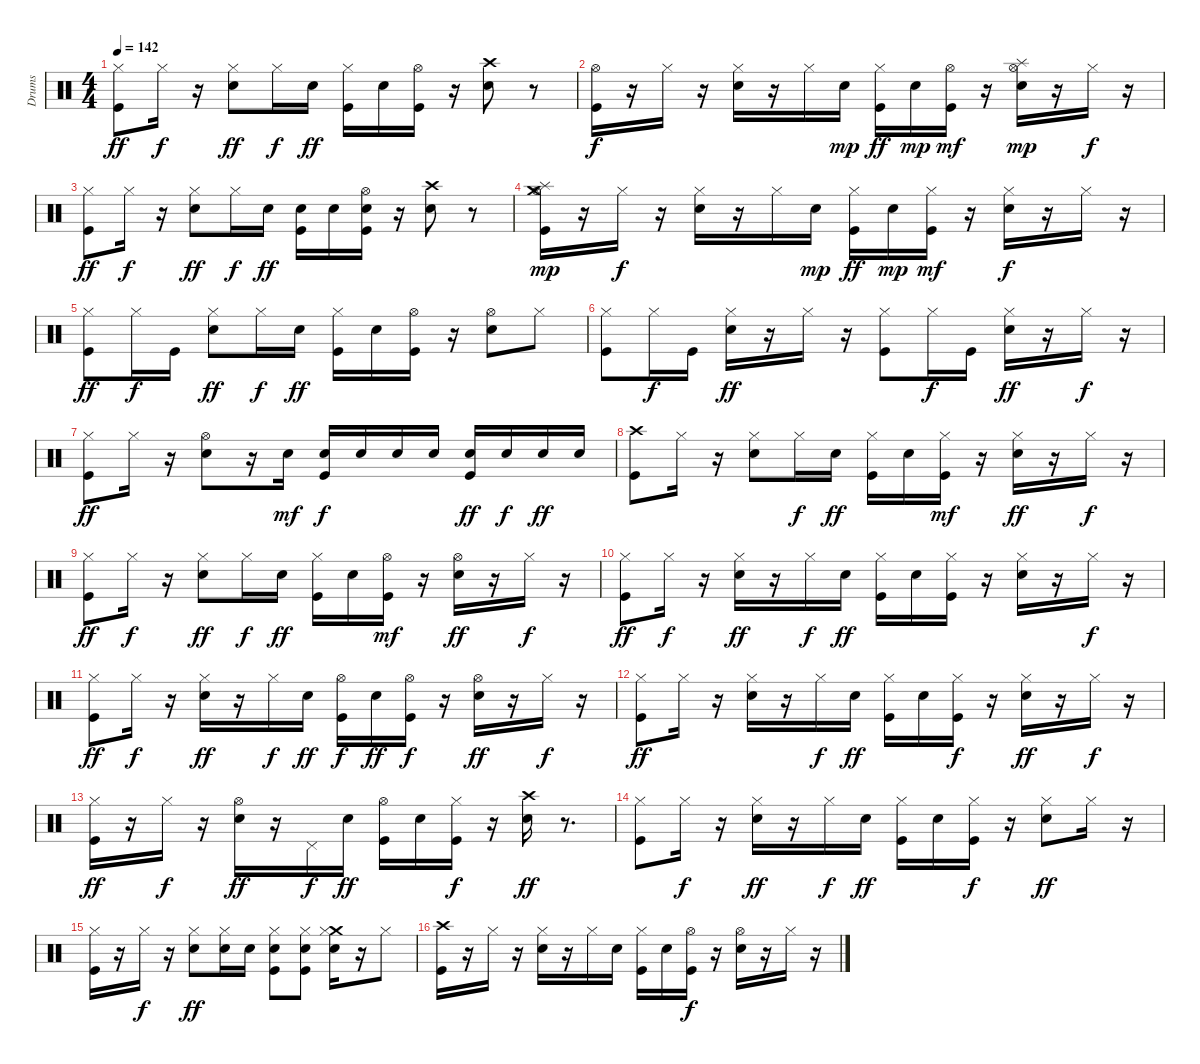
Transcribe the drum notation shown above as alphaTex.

\track ("Drums" "Drums") {instrument percussion}
\staff {score}
\articulation defaults
\ts (4 4)
\tempo 142
\clef neutral
\ks c
("Hi-Hat (closed)" "Kick (hit)").8{dy ff} "Hi-Hat (closed)".16{dy f} r.16 ("Hi-Hat (closed)" "Electric Snare (hit)").8{dy ff} "Hi-Hat (closed)".16{dy f} "Electric Snare (hit)".16{dy ff} ("Kick (hit)" "Hi-Hat (closed)").16 "Electric Snare (hit)".16 ("Kick (hit)" "Hi-Hat (open)").16 r.16 ("Crash high (hit)" "Electric Snare (hit)").8 r.8 |
("Hi-Hat (open)" "Kick (hit)").16{dy f} r.16 "Hi-Hat (closed)".16 r.16 ("Electric Snare (hit)" "Hi-Hat (closed)").16 r.16 "Hi-Hat (closed)".16 "Electric Snare (hit)".16{dy mp} ("Kick (hit)" "Hi-Hat (closed)").16{dy ff} "Electric Snare (hit)".16{dy mp} ("Kick (hit)" "Hi-Hat (open)").16{dy mf} r.16 ("Splash (hit)" "Hi-Hat (open)" "Electric Snare (hit)").16{dy mp} r.16 "Hi-Hat (closed)".16{dy f} r.16 |
("Hi-Hat (closed)" "Kick (hit)").8{dy ff} "Hi-Hat (closed)".16{dy f} r.16 ("Hi-Hat (closed)" "Electric Snare (hit)").8{dy ff} "Hi-Hat (closed)".16{dy f} "Electric Snare (hit)".16{dy ff} ("Kick (hit)" "Electric Snare (hit)").16 "Electric Snare (hit)".16 ("Hi-Hat (open)" "Electric Snare (hit)" "Kick (hit)").16 r.16 ("Crash high (hit)" "Electric Snare (hit)").8 r.8 |
("Crash medium (hit)" "Splash (hit)" "Hi-Hat (open)" "Kick (hit)").16{dy mp} r.16 "Hi-Hat (closed)".16{dy f} r.16 ("Electric Snare (hit)" "Hi-Hat (closed)").16 r.16 "Hi-Hat (closed)".16 "Electric Snare (hit)".16{dy mp} ("Kick (hit)" "Hi-Hat (closed)").16{dy ff} "Electric Snare (hit)".16{dy mp} ("Kick (hit)" "Hi-Hat (closed)").16{dy mf} r.16 ("Hi-Hat (closed)" "Electric Snare (hit)").16{dy f} r.16 "Hi-Hat (closed)".16 r.16 |
("Hi-Hat (closed)" "Kick (hit)").8{dy ff} "Hi-Hat (closed)".16{dy f} "Kick (hit)".16 ("Hi-Hat (closed)" "Electric Snare (hit)").8{dy ff} "Hi-Hat (closed)".16{dy f} "Electric Snare (hit)".16{dy ff} ("Kick (hit)" "Hi-Hat (closed)").16 "Electric Snare (hit)".16 ("Kick (hit)" "Hi-Hat (open)").16 r.16 ("Hi-Hat (open)" "Electric Snare (hit)").8 "Hi-Hat (closed)".8 |
("Kick (hit)" "Hi-Hat (closed)").8 "Hi-Hat (closed)".16{dy f} "Kick (hit)".16 ("Electric Snare (hit)" "Hi-Hat (closed)").16{dy ff} r.16 "Hi-Hat (closed)".16 r.16 ("Hi-Hat (closed)" "Kick (hit)").8 "Hi-Hat (closed)".16{dy f} "Kick (hit)".16 ("Hi-Hat (closed)" "Electric Snare (hit)").16{dy ff} r.16 "Hi-Hat (closed)".16{dy f} r.16 |
("Hi-Hat (closed)" "Kick (hit)").8{dy ff} "Hi-Hat (closed)".16 r.16 ("Electric Snare (hit)" "Hi-Hat (open)").8 r.16 "Electric Snare (hit)".16{dy mf} ("Kick (hit)" "Electric Snare (hit)").16{dy f} "Electric Snare (hit)".16 "Electric Snare (hit)".16 "Electric Snare (hit)".16 ("Kick (hit)" "Electric Snare (hit)").16{dy ff} "Electric Snare (hit)".16{dy f} "Electric Snare (hit)".16{dy ff} "Electric Snare (hit)".16 |
("Kick (hit)" "Crash high (hit)").8 "Hi-Hat (closed)".16 r.16 ("Hi-Hat (closed)" "Electric Snare (hit)").8 "Hi-Hat (closed)".16{dy f} "Electric Snare (hit)".16{dy ff} ("Hi-Hat (closed)" "Kick (hit)").16 "Electric Snare (hit)".16 ("Hi-Hat (closed)" "Kick (hit)").16{dy mf} r.16 ("Electric Snare (hit)" "Hi-Hat (closed)").16{dy ff} r.16 "Hi-Hat (closed)".16{dy f} r.16 |
("Hi-Hat (closed)" "Kick (hit)").8{dy ff} "Hi-Hat (closed)".16{dy f} r.16 ("Hi-Hat (closed)" "Electric Snare (hit)").8{dy ff} "Hi-Hat (closed)".16{dy f} "Electric Snare (hit)".16{dy ff} ("Kick (hit)" "Hi-Hat (closed)").16 "Electric Snare (hit)".16 ("Hi-Hat (open)" "Kick (hit)").16{dy mf} r.16 ("Hi-Hat (open)" "Electric Snare (hit)").16{dy ff} r.16 "Hi-Hat (closed)".16{dy f} r.16 |
("Hi-Hat (closed)" "Kick (hit)").8{dy ff} "Hi-Hat (closed)".16{dy f} r.16 ("Hi-Hat (closed)" "Electric Snare (hit)").16{dy ff} r.16 "Hi-Hat (closed)".16{dy f} "Electric Snare (hit)".16{dy ff} ("Hi-Hat (closed)" "Kick (hit)").16 "Electric Snare (hit)".16 ("Hi-Hat (closed)" "Kick (hit)").16 r.16 ("Hi-Hat (closed)" "Electric Snare (hit)").16 r.16 "Hi-Hat (closed)".16{dy f} r.16 |
("Kick (hit)" "Hi-Hat (closed)").8{dy ff} "Hi-Hat (closed)".16{dy f} r.16 ("Hi-Hat (closed)" "Electric Snare (hit)").16{dy ff} r.16 "Hi-Hat (closed)".16{dy f} "Electric Snare (hit)".16{dy ff} ("Hi-Hat (open)" "Kick (hit)").16{dy f} "Electric Snare (hit)".16{dy ff} ("Hi-Hat (open)" "Kick (hit)").16{dy f} r.16 ("Hi-Hat (open)" "Electric Snare (hit)").16{dy ff} r.16 "Hi-Hat (closed)".16{dy f} r.16 |
("Hi-Hat (closed)" "Kick (hit)").8{dy ff} "Hi-Hat (closed)".16 r.16 ("Hi-Hat (closed)" "Electric Snare (hit)").16 r.16 "Hi-Hat (closed)".16{dy f} "Electric Snare (hit)".16{dy ff} ("Hi-Hat (closed)" "Kick (hit)").16 "Electric Snare (hit)".16 ("Kick (hit)" "Hi-Hat (closed)").16{dy f} r.16 ("Hi-Hat (closed)" "Electric Snare (hit)").16{dy ff} r.16 "Hi-Hat (closed)".16{dy f} r.16 |
("Kick (hit)" "Hi-Hat (closed)").16{dy ff} r.16 "Hi-Hat (closed)".16{dy f} r.16 ("Electric Snare (hit)" "Hi-Hat (open)").16{dy ff} r.16 "Pedal Hi-Hat (hit)".16{dy f} "Electric Snare (hit)".16{dy ff} ("Kick (hit)" "Hi-Hat (open)").16 "Electric Snare (hit)".16 ("Hi-Hat (closed)" "Kick (hit)").16{dy f} r.16 ("Crash high (hit)" "Electric Snare (hit)").16{dy ff} r.8{d} |
("Hi-Hat (closed)" "Kick (hit)").8 "Hi-Hat (closed)".16{dy f} r.16 ("Electric Snare (hit)" "Hi-Hat (closed)").16{dy ff} r.16 "Hi-Hat (closed)".16{dy f} "Electric Snare (hit)".16{dy ff} ("Kick (hit)" "Hi-Hat (closed)").16 "Electric Snare (hit)".16 ("Hi-Hat (closed)" "Kick (hit)").16{dy f} r.16 ("Electric Snare (hit)" "Hi-Hat (closed)").8{dy ff} "Hi-Hat (closed)".16 r.16 |
("Hi-Hat (closed)" "Kick (hit)").16 r.16 "Hi-Hat (closed)".16{dy f} r.16 ("Hi-Hat (closed)" "Electric Snare (hit)").8{dy ff} ("Electric Snare (hit)" "Hi-Hat (closed)").16 "Electric Snare (hit)".16 ("Electric Snare (hit)" "Hi-Hat (closed)" "Kick (hit)").8 ("Kick (hit)" "Electric Snare (hit)" "Hi-Hat (closed)").8 ("Crash medium (hit)" "Electric Snare (hit)" "Hi-Hat (closed)").16 r.16 "Hi-Hat (closed)".8 |
("Crash high (hit)" "Kick (hit)").16 r.16 "Hi-Hat (closed)".16 r.16 ("Hi-Hat (closed)" "Electric Snare (hit)").16 r.16 "Hi-Hat (closed)".16 "Electric Snare (hit)".16 ("Kick (hit)" "Hi-Hat (closed)").16 "Electric Snare (hit)".16 ("Kick (hit)" "Hi-Hat (open)").16{dy f} r.16 ("Electric Snare (hit)" "Hi-Hat (open)").16 r.16 "Hi-Hat (closed)".16 r.16
